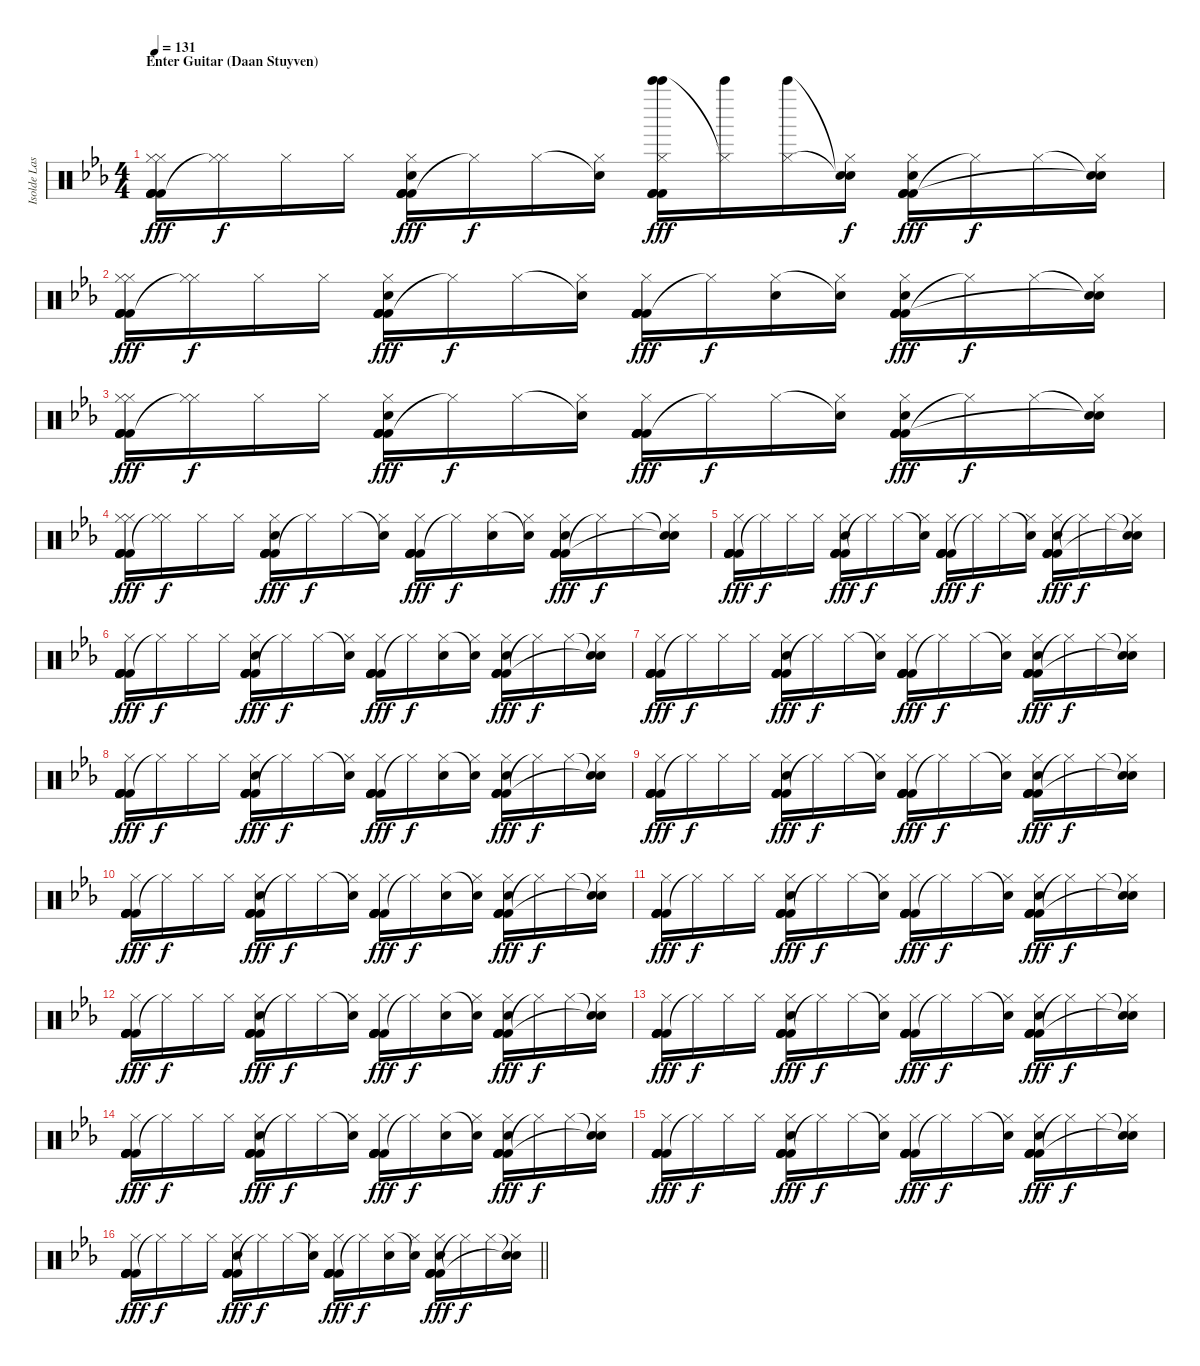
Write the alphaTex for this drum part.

\track ("Isolde Lasoen (Percussion)" "Isolde Las") {instrument percussion}
\staff {score}
\articulation defaults
\ts (4 4)
\section ("" "Enter Guitar (Daan Stuyven)")
\tempo 131
\clef neutral
\ks cminor
("Hi-Hat (closed)" "Kick (hit) 2" "Kick (hit) 2" "Kick (hit) 2" "Hi-Hat (closed)" "Kick (hit) 2").16{dy fff} ("Hi-Hat (closed)" "Hi-Hat (closed)"{t}).16{dy f} "Hi-Hat (closed)".16 "Hi-Hat (closed)".16 ("Kick (hit) 2" "Kick (hit) 2" "Kick (hit) 2" "Kick (hit) 2" "Hi-Hat (closed)" "Hand Clap (hit)").16{dy fff} "Hi-Hat (closed)"{t}.16{dy f} "Hi-Hat (closed)".16 ("Snare (hit)"{t} "Hi-Hat (closed)").16 ("Bell Tree (hit)" "Bell Tree (hit)" "Kick (hit) 2" "Kick (hit) 2" "Hi-Hat (closed)" "Kick (hit) 2").16{dy fff} ("Bell Tree (hit)" "Hi-Hat (closed)"{t}).16 ("Bell Tree (hit)" "Hi-Hat (closed)").16 ("Snare (hit)"{t} "Snare (hit)"{t} "Hi-Hat (closed)").16{dy f} ("Kick (hit) 2" "Kick (hit) 2" "Kick (hit) 2" "Hi-Hat (closed)" "Hand Clap (hit)").16{dy fff} "Hi-Hat (closed)"{t}.16{dy f} "Hi-Hat (closed)".16 ("Snare (hit)"{t} "Hi-Hat (closed)" "Snare (hit)"{t}).16 |
("Hi-Hat (closed)" "Kick (hit) 2" "Kick (hit) 2" "Kick (hit) 2" "Hi-Hat (closed)" "Kick (hit) 2").16{dy fff} ("Hi-Hat (closed)" "Hi-Hat (closed)"{t}).16{dy f} "Hi-Hat (closed)".16 "Hi-Hat (closed)".16 ("Kick (hit) 2" "Kick (hit) 2" "Kick (hit) 2" "Kick (hit) 2" "Hi-Hat (closed)" "Hand Clap (hit)").16{dy fff} "Hi-Hat (closed)"{t}.16{dy f} "Hi-Hat (closed)".16 ("Snare (hit)"{t} "Hi-Hat (closed)").16 ("Kick (hit) 2" "Kick (hit) 2" "Kick (hit) 2" "Kick (hit) 2" "Hi-Hat (closed)" "Kick (hit) 2").16{dy fff} "Hi-Hat (closed)"{t}.16{dy f} ("Hi-Hat (closed)" "Hand Clap (hit)").16 ("Snare (hit)"{t} "Hi-Hat (closed)").16 ("Kick (hit) 2" "Kick (hit) 2" "Kick (hit) 2" "Kick (hit) 2" "Hi-Hat (closed)" "Hand Clap (hit)").16{dy fff} "Hi-Hat (closed)"{t}.16{dy f} "Hi-Hat (closed)".16 ("Snare (hit)"{t} "Hi-Hat (closed)" "Snare (hit)"{t}).16 |
("Hi-Hat (closed)" "Kick (hit) 2" "Kick (hit) 2" "Kick (hit) 2" "Hi-Hat (closed)" "Kick (hit) 2").16{dy fff} ("Hi-Hat (closed)" "Hi-Hat (closed)"{t}).16{dy f} "Hi-Hat (closed)".16 "Hi-Hat (closed)".16 ("Kick (hit) 2" "Kick (hit) 2" "Kick (hit) 2" "Kick (hit) 2" "Hi-Hat (closed)" "Hand Clap (hit)").16{dy fff} "Hi-Hat (closed)"{t}.16{dy f} "Hi-Hat (closed)".16 ("Snare (hit)"{t} "Hi-Hat (closed)").16 ("Kick (hit) 2" "Kick (hit) 2" "Kick (hit) 2" "Kick (hit) 2" "Hi-Hat (closed)" "Kick (hit) 2").16{dy fff} "Hi-Hat (closed)"{t}.16{dy f} "Hi-Hat (closed)".16 ("Snare (hit)"{t} "Hi-Hat (closed)").16 ("Kick (hit) 2" "Kick (hit) 2" "Kick (hit) 2" "Kick (hit) 2" "Hi-Hat (closed)" "Hand Clap (hit)").16{dy fff} "Hi-Hat (closed)"{t}.16{dy f} "Hi-Hat (closed)".16 ("Snare (hit)"{t} "Hi-Hat (closed)" "Snare (hit)"{t}).16 |
("Hi-Hat (closed)" "Kick (hit) 2" "Kick (hit) 2" "Kick (hit) 2" "Hi-Hat (closed)" "Kick (hit) 2").16{dy fff} ("Hi-Hat (closed)" "Hi-Hat (closed)"{t}).16{dy f} "Hi-Hat (closed)".16 "Hi-Hat (closed)".16 ("Kick (hit) 2" "Kick (hit) 2" "Kick (hit) 2" "Kick (hit) 2" "Hi-Hat (closed)" "Hand Clap (hit)").16{dy fff} "Hi-Hat (closed)"{t}.16{dy f} "Hi-Hat (closed)".16 ("Snare (hit)"{t} "Hi-Hat (closed)").16 ("Kick (hit) 2" "Kick (hit) 2" "Kick (hit) 2" "Kick (hit) 2" "Hi-Hat (closed)" "Kick (hit) 2").16{dy fff} "Hi-Hat (closed)"{t}.16{dy f} ("Hi-Hat (closed)" "Hand Clap (hit)").16 ("Snare (hit)"{t} "Hi-Hat (closed)").16 ("Kick (hit) 2" "Kick (hit) 2" "Kick (hit) 2" "Kick (hit) 2" "Hi-Hat (closed)" "Hand Clap (hit)").16{dy fff} "Hi-Hat (closed)"{t}.16{dy f} "Hi-Hat (closed)".16 ("Snare (hit)"{t} "Hi-Hat (closed)" "Snare (hit)"{t}).16 |
("Kick (hit) 2" "Kick (hit) 2" "Kick (hit) 2" "Kick (hit) 2" "Hi-Hat (closed)" "Kick (hit) 2").16{dy fff} "Hi-Hat (closed)"{t}.16{dy f} "Hi-Hat (closed)".16 "Hi-Hat (closed)".16 ("Kick (hit) 2" "Kick (hit) 2" "Kick (hit) 2" "Kick (hit) 2" "Hi-Hat (closed)" "Hand Clap (hit)").16{dy fff} "Hi-Hat (closed)"{t}.16{dy f} "Hi-Hat (closed)".16 ("Snare (hit)"{t} "Hi-Hat (closed)").16 ("Kick (hit) 2" "Kick (hit) 2" "Kick (hit) 2" "Kick (hit) 2" "Hi-Hat (closed)" "Kick (hit) 2").16{dy fff} "Hi-Hat (closed)"{t}.16{dy f} "Hi-Hat (closed)".16 ("Snare (hit)"{t} "Hi-Hat (closed)").16 ("Kick (hit) 2" "Kick (hit) 2" "Kick (hit) 2" "Kick (hit) 2" "Hi-Hat (closed)" "Hand Clap (hit)").16{dy fff} "Hi-Hat (closed)"{t}.16{dy f} "Hi-Hat (closed)".16 ("Snare (hit)"{t} "Hi-Hat (closed)" "Snare (hit)"{t}).16 |
("Kick (hit) 2" "Kick (hit) 2" "Kick (hit) 2" "Kick (hit) 2" "Hi-Hat (closed)" "Kick (hit) 2").16{dy fff} "Hi-Hat (closed)"{t}.16{dy f} "Hi-Hat (closed)".16 "Hi-Hat (closed)".16 ("Kick (hit) 2" "Kick (hit) 2" "Kick (hit) 2" "Kick (hit) 2" "Hi-Hat (closed)" "Hand Clap (hit)").16{dy fff} "Hi-Hat (closed)"{t}.16{dy f} "Hi-Hat (closed)".16 ("Snare (hit)"{t} "Hi-Hat (closed)").16 ("Kick (hit) 2" "Kick (hit) 2" "Kick (hit) 2" "Kick (hit) 2" "Hi-Hat (closed)" "Kick (hit) 2").16{dy fff} "Hi-Hat (closed)"{t}.16{dy f} ("Hi-Hat (closed)" "Hand Clap (hit)").16 ("Snare (hit)"{t} "Hi-Hat (closed)").16 ("Kick (hit) 2" "Kick (hit) 2" "Kick (hit) 2" "Kick (hit) 2" "Hi-Hat (closed)" "Hand Clap (hit)").16{dy fff} "Hi-Hat (closed)"{t}.16{dy f} "Hi-Hat (closed)".16 ("Snare (hit)"{t} "Hi-Hat (closed)" "Snare (hit)"{t}).16 |
("Kick (hit) 2" "Kick (hit) 2" "Kick (hit) 2" "Kick (hit) 2" "Hi-Hat (closed)" "Kick (hit) 2").16{dy fff} "Hi-Hat (closed)"{t}.16{dy f} "Hi-Hat (closed)".16 "Hi-Hat (closed)".16 ("Kick (hit) 2" "Kick (hit) 2" "Kick (hit) 2" "Kick (hit) 2" "Hi-Hat (closed)" "Hand Clap (hit)").16{dy fff} "Hi-Hat (closed)"{t}.16{dy f} "Hi-Hat (closed)".16 ("Snare (hit)"{t} "Hi-Hat (closed)").16 ("Kick (hit) 2" "Kick (hit) 2" "Kick (hit) 2" "Kick (hit) 2" "Hi-Hat (closed)" "Kick (hit) 2").16{dy fff} "Hi-Hat (closed)"{t}.16{dy f} "Hi-Hat (closed)".16 ("Snare (hit)"{t} "Hi-Hat (closed)").16 ("Kick (hit) 2" "Kick (hit) 2" "Kick (hit) 2" "Kick (hit) 2" "Hi-Hat (closed)" "Hand Clap (hit)").16{dy fff} "Hi-Hat (closed)"{t}.16{dy f} "Hi-Hat (closed)".16 ("Snare (hit)"{t} "Hi-Hat (closed)" "Snare (hit)"{t}).16 |
("Kick (hit) 2" "Kick (hit) 2" "Kick (hit) 2" "Kick (hit) 2" "Hi-Hat (closed)" "Kick (hit) 2").16{dy fff} "Hi-Hat (closed)"{t}.16{dy f} "Hi-Hat (closed)".16 "Hi-Hat (closed)".16 ("Kick (hit) 2" "Kick (hit) 2" "Kick (hit) 2" "Kick (hit) 2" "Hi-Hat (closed)" "Hand Clap (hit)").16{dy fff} "Hi-Hat (closed)"{t}.16{dy f} "Hi-Hat (closed)".16 ("Snare (hit)"{t} "Hi-Hat (closed)").16 ("Kick (hit) 2" "Kick (hit) 2" "Kick (hit) 2" "Kick (hit) 2" "Hi-Hat (closed)" "Kick (hit) 2").16{dy fff} "Hi-Hat (closed)"{t}.16{dy f} ("Hi-Hat (closed)" "Hand Clap (hit)").16 ("Snare (hit)"{t} "Hi-Hat (closed)").16 ("Kick (hit) 2" "Kick (hit) 2" "Kick (hit) 2" "Kick (hit) 2" "Hi-Hat (closed)" "Hand Clap (hit)").16{dy fff} "Hi-Hat (closed)"{t}.16{dy f} "Hi-Hat (closed)".16 ("Snare (hit)"{t} "Hi-Hat (closed)" "Snare (hit)"{t}).16 |
("Kick (hit) 2" "Kick (hit) 2" "Kick (hit) 2" "Kick (hit) 2" "Hi-Hat (closed)" "Kick (hit) 2").16{dy fff} "Hi-Hat (closed)"{t}.16{dy f} "Hi-Hat (closed)".16 "Hi-Hat (closed)".16 ("Kick (hit) 2" "Kick (hit) 2" "Kick (hit) 2" "Kick (hit) 2" "Hi-Hat (closed)" "Hand Clap (hit)").16{dy fff} "Hi-Hat (closed)"{t}.16{dy f} "Hi-Hat (closed)".16 ("Snare (hit)"{t} "Hi-Hat (closed)").16 ("Kick (hit) 2" "Kick (hit) 2" "Kick (hit) 2" "Kick (hit) 2" "Hi-Hat (closed)" "Kick (hit) 2").16{dy fff} "Hi-Hat (closed)"{t}.16{dy f} "Hi-Hat (closed)".16 ("Snare (hit)"{t} "Hi-Hat (closed)").16 ("Kick (hit) 2" "Kick (hit) 2" "Kick (hit) 2" "Kick (hit) 2" "Hi-Hat (closed)" "Hand Clap (hit)").16{dy fff} "Hi-Hat (closed)"{t}.16{dy f} "Hi-Hat (closed)".16 ("Snare (hit)"{t} "Hi-Hat (closed)" "Snare (hit)"{t}).16 |
("Kick (hit) 2" "Kick (hit) 2" "Kick (hit) 2" "Kick (hit) 2" "Hi-Hat (closed)" "Kick (hit) 2").16{dy fff} "Hi-Hat (closed)"{t}.16{dy f} "Hi-Hat (closed)".16 "Hi-Hat (closed)".16 ("Kick (hit) 2" "Kick (hit) 2" "Kick (hit) 2" "Kick (hit) 2" "Hi-Hat (closed)" "Hand Clap (hit)").16{dy fff} "Hi-Hat (closed)"{t}.16{dy f} "Hi-Hat (closed)".16 ("Snare (hit)"{t} "Hi-Hat (closed)").16 ("Kick (hit) 2" "Kick (hit) 2" "Kick (hit) 2" "Kick (hit) 2" "Hi-Hat (closed)" "Kick (hit) 2").16{dy fff} "Hi-Hat (closed)"{t}.16{dy f} ("Hi-Hat (closed)" "Hand Clap (hit)").16 ("Snare (hit)"{t} "Hi-Hat (closed)").16 ("Kick (hit) 2" "Kick (hit) 2" "Kick (hit) 2" "Kick (hit) 2" "Hi-Hat (closed)" "Hand Clap (hit)").16{dy fff} "Hi-Hat (closed)"{t}.16{dy f} "Hi-Hat (closed)".16 ("Snare (hit)"{t} "Hi-Hat (closed)" "Snare (hit)"{t}).16 |
("Kick (hit) 2" "Kick (hit) 2" "Kick (hit) 2" "Kick (hit) 2" "Hi-Hat (closed)" "Kick (hit) 2").16{dy fff} "Hi-Hat (closed)"{t}.16{dy f} "Hi-Hat (closed)".16 "Hi-Hat (closed)".16 ("Kick (hit) 2" "Kick (hit) 2" "Kick (hit) 2" "Kick (hit) 2" "Hi-Hat (closed)" "Hand Clap (hit)").16{dy fff} "Hi-Hat (closed)"{t}.16{dy f} "Hi-Hat (closed)".16 ("Snare (hit)"{t} "Hi-Hat (closed)").16 ("Kick (hit) 2" "Kick (hit) 2" "Kick (hit) 2" "Kick (hit) 2" "Hi-Hat (closed)" "Kick (hit) 2").16{dy fff} "Hi-Hat (closed)"{t}.16{dy f} "Hi-Hat (closed)".16 ("Snare (hit)"{t} "Hi-Hat (closed)").16 ("Kick (hit) 2" "Kick (hit) 2" "Kick (hit) 2" "Kick (hit) 2" "Hi-Hat (closed)" "Hand Clap (hit)").16{dy fff} "Hi-Hat (closed)"{t}.16{dy f} "Hi-Hat (closed)".16 ("Snare (hit)"{t} "Hi-Hat (closed)" "Snare (hit)"{t}).16 |
("Kick (hit) 2" "Kick (hit) 2" "Kick (hit) 2" "Kick (hit) 2" "Hi-Hat (closed)" "Kick (hit) 2").16{dy fff} "Hi-Hat (closed)"{t}.16{dy f} "Hi-Hat (closed)".16 "Hi-Hat (closed)".16 ("Kick (hit) 2" "Kick (hit) 2" "Kick (hit) 2" "Kick (hit) 2" "Hi-Hat (closed)" "Hand Clap (hit)").16{dy fff} "Hi-Hat (closed)"{t}.16{dy f} "Hi-Hat (closed)".16 ("Snare (hit)"{t} "Hi-Hat (closed)").16 ("Kick (hit) 2" "Kick (hit) 2" "Kick (hit) 2" "Kick (hit) 2" "Hi-Hat (closed)" "Kick (hit) 2").16{dy fff} "Hi-Hat (closed)"{t}.16{dy f} ("Hi-Hat (closed)" "Hand Clap (hit)").16 ("Snare (hit)"{t} "Hi-Hat (closed)").16 ("Kick (hit) 2" "Kick (hit) 2" "Kick (hit) 2" "Kick (hit) 2" "Hi-Hat (closed)" "Hand Clap (hit)").16{dy fff} "Hi-Hat (closed)"{t}.16{dy f} "Hi-Hat (closed)".16 ("Snare (hit)"{t} "Hi-Hat (closed)" "Snare (hit)"{t}).16 |
("Kick (hit) 2" "Kick (hit) 2" "Kick (hit) 2" "Kick (hit) 2" "Hi-Hat (closed)" "Kick (hit) 2").16{dy fff} "Hi-Hat (closed)"{t}.16{dy f} "Hi-Hat (closed)".16 "Hi-Hat (closed)".16 ("Kick (hit) 2" "Kick (hit) 2" "Kick (hit) 2" "Kick (hit) 2" "Hi-Hat (closed)" "Hand Clap (hit)").16{dy fff} "Hi-Hat (closed)"{t}.16{dy f} "Hi-Hat (closed)".16 ("Snare (hit)"{t} "Hi-Hat (closed)").16 ("Kick (hit) 2" "Kick (hit) 2" "Kick (hit) 2" "Kick (hit) 2" "Hi-Hat (closed)" "Kick (hit) 2").16{dy fff} "Hi-Hat (closed)"{t}.16{dy f} "Hi-Hat (closed)".16 ("Snare (hit)"{t} "Hi-Hat (closed)").16 ("Kick (hit) 2" "Kick (hit) 2" "Kick (hit) 2" "Kick (hit) 2" "Hi-Hat (closed)" "Hand Clap (hit)").16{dy fff} "Hi-Hat (closed)"{t}.16{dy f} "Hi-Hat (closed)".16 ("Snare (hit)"{t} "Hi-Hat (closed)" "Snare (hit)"{t}).16 |
("Kick (hit) 2" "Kick (hit) 2" "Kick (hit) 2" "Kick (hit) 2" "Hi-Hat (closed)" "Kick (hit) 2").16{dy fff} "Hi-Hat (closed)"{t}.16{dy f} "Hi-Hat (closed)".16 "Hi-Hat (closed)".16 ("Kick (hit) 2" "Kick (hit) 2" "Kick (hit) 2" "Kick (hit) 2" "Hi-Hat (closed)" "Hand Clap (hit)").16{dy fff} "Hi-Hat (closed)"{t}.16{dy f} "Hi-Hat (closed)".16 ("Snare (hit)"{t} "Hi-Hat (closed)").16 ("Kick (hit) 2" "Kick (hit) 2" "Kick (hit) 2" "Kick (hit) 2" "Hi-Hat (closed)" "Kick (hit) 2").16{dy fff} "Hi-Hat (closed)"{t}.16{dy f} ("Hi-Hat (closed)" "Hand Clap (hit)").16 ("Snare (hit)"{t} "Hi-Hat (closed)").16 ("Kick (hit) 2" "Kick (hit) 2" "Kick (hit) 2" "Kick (hit) 2" "Hi-Hat (closed)" "Hand Clap (hit)").16{dy fff} "Hi-Hat (closed)"{t}.16{dy f} "Hi-Hat (closed)".16 ("Snare (hit)"{t} "Hi-Hat (closed)" "Snare (hit)"{t}).16 |
("Kick (hit) 2" "Kick (hit) 2" "Kick (hit) 2" "Kick (hit) 2" "Hi-Hat (closed)" "Kick (hit) 2").16{dy fff} "Hi-Hat (closed)"{t}.16{dy f} "Hi-Hat (closed)".16 "Hi-Hat (closed)".16 ("Kick (hit) 2" "Kick (hit) 2" "Kick (hit) 2" "Kick (hit) 2" "Hi-Hat (closed)" "Hand Clap (hit)").16{dy fff} "Hi-Hat (closed)"{t}.16{dy f} "Hi-Hat (closed)".16 ("Snare (hit)"{t} "Hi-Hat (closed)").16 ("Kick (hit) 2" "Kick (hit) 2" "Kick (hit) 2" "Kick (hit) 2" "Hi-Hat (closed)" "Kick (hit) 2").16{dy fff} "Hi-Hat (closed)"{t}.16{dy f} "Hi-Hat (closed)".16 ("Snare (hit)"{t} "Hi-Hat (closed)").16 ("Kick (hit) 2" "Kick (hit) 2" "Kick (hit) 2" "Kick (hit) 2" "Hi-Hat (closed)" "Hand Clap (hit)").16{dy fff} "Hi-Hat (closed)"{t}.16{dy f} "Hi-Hat (closed)".16 ("Snare (hit)"{t} "Hi-Hat (closed)" "Snare (hit)"{t}).16 |
\barLineRight lightlight
("Kick (hit) 2" "Kick (hit) 2" "Kick (hit) 2" "Kick (hit) 2" "Hi-Hat (closed)" "Kick (hit) 2").16{dy fff} "Hi-Hat (closed)"{t}.16{dy f} "Hi-Hat (closed)".16 "Hi-Hat (closed)".16 ("Kick (hit) 2" "Kick (hit) 2" "Kick (hit) 2" "Kick (hit) 2" "Hi-Hat (closed)" "Hand Clap (hit)").16{dy fff} "Hi-Hat (closed)"{t}.16{dy f} "Hi-Hat (closed)".16 ("Snare (hit)"{t} "Hi-Hat (closed)").16 ("Kick (hit) 2" "Kick (hit) 2" "Kick (hit) 2" "Kick (hit) 2" "Hi-Hat (closed)" "Kick (hit) 2").16{dy fff} "Hi-Hat (closed)"{t}.16{dy f} ("Hi-Hat (closed)" "Hand Clap (hit)").16 ("Snare (hit)"{t} "Hi-Hat (closed)").16 ("Kick (hit) 2" "Kick (hit) 2" "Kick (hit) 2" "Kick (hit) 2" "Hi-Hat (closed)" "Hand Clap (hit)").16{dy fff} "Hi-Hat (closed)"{t}.16{dy f} "Hi-Hat (closed)".16 ("Snare (hit)"{t} "Hi-Hat (closed)" "Snare (hit)"{t}).16
